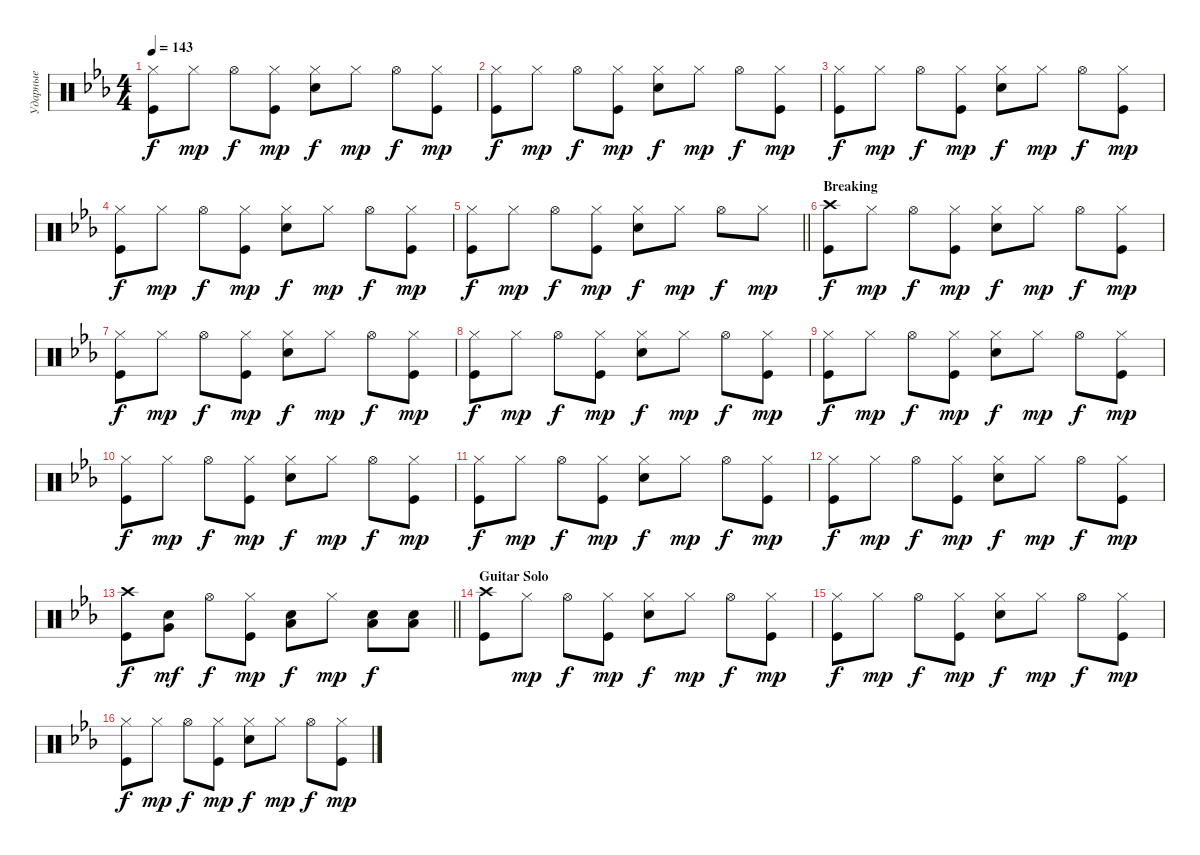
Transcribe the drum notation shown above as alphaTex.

\track ("Ударные" "Ударные") {instrument percussion}
\staff {score}
\articulation defaults
\ts (4 4)
\tempo 143
\clef neutral
\ks cminor
("Kick (hit)" "Hi-Hat (closed)").8{dy f} "Hi-Hat (closed)".8{dy mp} "Hi-Hat (open)".8{dy f} ("Kick (hit)" "Hi-Hat (closed)").8{dy mp} ("Snare (hit) 2" "Hi-Hat (closed)").8{dy f} "Hi-Hat (closed)".8{dy mp} "Hi-Hat (open)".8{dy f} ("Kick (hit)" "Hi-Hat (closed)").8{dy mp} |
("Kick (hit)" "Hi-Hat (closed)").8{dy f} "Hi-Hat (closed)".8{dy mp} "Hi-Hat (open)".8{dy f} ("Kick (hit)" "Hi-Hat (closed)").8{dy mp} ("Snare (hit) 2" "Hi-Hat (closed)").8{dy f} "Hi-Hat (closed)".8{dy mp} "Hi-Hat (open)".8{dy f} ("Kick (hit)" "Hi-Hat (closed)").8{dy mp} |
("Kick (hit)" "Hi-Hat (closed)").8{dy f} "Hi-Hat (closed)".8{dy mp} "Hi-Hat (open)".8{dy f} ("Kick (hit)" "Hi-Hat (closed)").8{dy mp} ("Snare (hit) 2" "Hi-Hat (closed)").8{dy f} "Hi-Hat (closed)".8{dy mp} "Hi-Hat (open)".8{dy f} ("Kick (hit)" "Hi-Hat (closed)").8{dy mp} |
("Kick (hit)" "Hi-Hat (closed)").8{dy f} "Hi-Hat (closed)".8{dy mp} "Hi-Hat (open)".8{dy f} ("Kick (hit)" "Hi-Hat (closed)").8{dy mp} ("Snare (hit) 2" "Hi-Hat (closed)").8{dy f} "Hi-Hat (closed)".8{dy mp} "Hi-Hat (open)".8{dy f} ("Kick (hit)" "Hi-Hat (closed)").8{dy mp} |
\barLineRight lightlight
("Kick (hit)" "Hi-Hat (closed)").8{dy f} "Hi-Hat (closed)".8{dy mp} "Hi-Hat (open)".8{dy f} ("Kick (hit)" "Hi-Hat (closed)").8{dy mp} ("Snare (hit) 2" "Hi-Hat (closed)").8{dy f} "Hi-Hat (closed)".8{dy mp} "Hi-Hat (open)".8{dy f} "Hi-Hat (closed)".8{dy mp} |
\section ("" "Breaking")
("Kick (hit)" "Crash high (hit)").8{dy f} "Hi-Hat (closed)".8{dy mp} "Hi-Hat (open)".8{dy f} ("Kick (hit)" "Hi-Hat (closed)").8{dy mp} ("Snare (hit) 2" "Hi-Hat (closed)").8{dy f} "Hi-Hat (closed)".8{dy mp} "Hi-Hat (open)".8{dy f} ("Kick (hit)" "Hi-Hat (closed)").8{dy mp} |
("Kick (hit)" "Hi-Hat (closed)").8{dy f} "Hi-Hat (closed)".8{dy mp} "Hi-Hat (open)".8{dy f} ("Kick (hit)" "Hi-Hat (closed)").8{dy mp} ("Snare (hit) 2" "Hi-Hat (closed)").8{dy f} "Hi-Hat (closed)".8{dy mp} "Hi-Hat (open)".8{dy f} ("Kick (hit)" "Hi-Hat (closed)").8{dy mp} |
("Kick (hit)" "Hi-Hat (closed)").8{dy f} "Hi-Hat (closed)".8{dy mp} "Hi-Hat (open)".8{dy f} ("Kick (hit)" "Hi-Hat (closed)").8{dy mp} ("Snare (hit) 2" "Hi-Hat (closed)").8{dy f} "Hi-Hat (closed)".8{dy mp} "Hi-Hat (open)".8{dy f} ("Kick (hit)" "Hi-Hat (closed)").8{dy mp} |
("Kick (hit)" "Hi-Hat (closed)").8{dy f} "Hi-Hat (closed)".8{dy mp} "Hi-Hat (open)".8{dy f} ("Kick (hit)" "Hi-Hat (closed)").8{dy mp} ("Snare (hit) 2" "Hi-Hat (closed)").8{dy f} "Hi-Hat (closed)".8{dy mp} "Hi-Hat (open)".8{dy f} ("Kick (hit)" "Hi-Hat (closed)").8{dy mp} |
("Kick (hit)" "Hi-Hat (closed)").8{dy f} "Hi-Hat (closed)".8{dy mp} "Hi-Hat (open)".8{dy f} ("Kick (hit)" "Hi-Hat (closed)").8{dy mp} ("Snare (hit) 2" "Hi-Hat (closed)").8{dy f} "Hi-Hat (closed)".8{dy mp} "Hi-Hat (open)".8{dy f} ("Kick (hit)" "Hi-Hat (closed)").8{dy mp} |
("Kick (hit)" "Hi-Hat (closed)").8{dy f} "Hi-Hat (closed)".8{dy mp} "Hi-Hat (open)".8{dy f} ("Kick (hit)" "Hi-Hat (closed)").8{dy mp} ("Snare (hit) 2" "Hi-Hat (closed)").8{dy f} "Hi-Hat (closed)".8{dy mp} "Hi-Hat (open)".8{dy f} ("Kick (hit)" "Hi-Hat (closed)").8{dy mp} |
("Kick (hit)" "Hi-Hat (closed)").8{dy f} "Hi-Hat (closed)".8{dy mp} "Hi-Hat (open)".8{dy f} ("Kick (hit)" "Hi-Hat (closed)").8{dy mp} ("Snare (hit) 2" "Hi-Hat (closed)").8{dy f} "Hi-Hat (closed)".8{dy mp} "Hi-Hat (open)".8{dy f} ("Kick (hit)" "Hi-Hat (closed)").8{dy mp} |
\barLineRight lightlight
("Kick (hit)" "Crash high (hit)").8{dy f} ("Snare (hit) 2" "Very Low Tom (hit)").8{dy mf} "Hi-Hat (open)".8{dy f} ("Kick (hit)" "Hi-Hat (closed)").8{dy mp} ("Snare (hit) 2" "Low Tom (hit)").8{dy f} "Hi-Hat (closed)".8{dy mp} ("Snare (hit) 2" "Low Tom (hit)").8{dy f} ("Low Tom (hit)" "Snare (hit) 2").8 |
\section ("" "Guitar Solo")
("Kick (hit)" "Crash high (hit)").8 "Hi-Hat (closed)".8{dy mp} "Hi-Hat (open)".8{dy f} ("Kick (hit)" "Hi-Hat (closed)").8{dy mp} ("Snare (hit) 2" "Hi-Hat (closed)").8{dy f} "Hi-Hat (closed)".8{dy mp} "Hi-Hat (open)".8{dy f} ("Kick (hit)" "Hi-Hat (closed)").8{dy mp} |
("Kick (hit)" "Hi-Hat (closed)").8{dy f} "Hi-Hat (closed)".8{dy mp} "Hi-Hat (open)".8{dy f} ("Kick (hit)" "Hi-Hat (closed)").8{dy mp} ("Snare (hit) 2" "Hi-Hat (closed)").8{dy f} "Hi-Hat (closed)".8{dy mp} "Hi-Hat (open)".8{dy f} ("Kick (hit)" "Hi-Hat (closed)").8{dy mp} |
("Kick (hit)" "Hi-Hat (closed)").8{dy f} "Hi-Hat (closed)".8{dy mp} "Hi-Hat (open)".8{dy f} ("Kick (hit)" "Hi-Hat (closed)").8{dy mp} ("Snare (hit) 2" "Hi-Hat (closed)").8{dy f} "Hi-Hat (closed)".8{dy mp} "Hi-Hat (open)".8{dy f} ("Kick (hit)" "Hi-Hat (closed)").8{dy mp}
